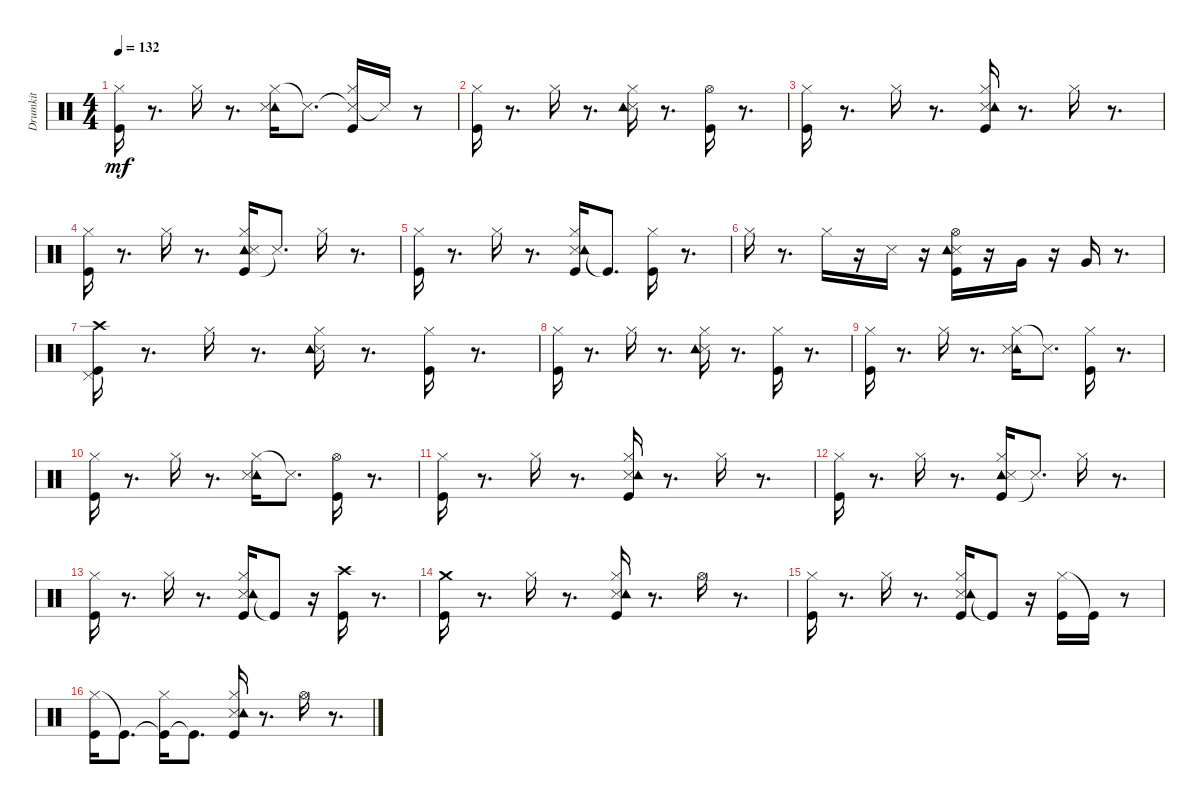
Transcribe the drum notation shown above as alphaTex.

\track ("Drumkit" "Drumkit") {instrument percussion}
\staff {score}
\articulation defaults
\ts (4 4)
\tempo 132
\clef neutral
\ks aminor
("Kick (hit)" "Hi-Hat (closed)").16{dy mf} r.8{d} "Hi-Hat (closed)".16 r.8{d} ("Hi-Hat (closed)" "Tambourine (hit)" "Snare (side stick) 3").16 "Snare (side stick) 3"{t}.8{d} ("Snare (side stick) 3"{t} "Hi-Hat (closed)" "Kick (hit)").16 "Snare (side stick) 3"{t}.16 r.8 |
("Kick (hit)" "Hi-Hat (closed)").16 r.8{d} "Hi-Hat (closed)".16 r.8{d} ("Snare (side stick) 3" "Hi-Hat (closed)" "Tambourine (hit)").16 r.8{d} ("Kick (hit)" "Hi-Hat (open)").16 r.8{d} |
("Kick (hit)" "Hi-Hat (closed)").16 r.8{d} "Hi-Hat (closed)".16 r.8{d} ("Kick (hit)" "Snare (side stick) 3" "Hi-Hat (closed)" "Tambourine (hit)").16 r.8{d} "Hi-Hat (closed)".16 r.8{d} |
("Kick (hit)" "Hi-Hat (closed)").16 r.8{d} "Hi-Hat (closed)".16 r.8{d} ("Kick (hit)" "Hi-Hat (closed)" "Tambourine (hit)" "Snare (side stick) 3").16 "Snare (side stick) 3"{t}.8{d} "Hi-Hat (closed)".16 r.8{d} |
("Kick (hit)" "Hi-Hat (closed)").16 r.8{d} "Hi-Hat (closed)".16 r.8{d} ("Snare (side stick) 3" "Hi-Hat (closed)" "Tambourine (hit)" "Kick (hit)").16 "Kick (hit)"{t}.8{d} ("Kick (hit)" "Hi-Hat (closed)").16 r.8{d} |
"Hi-Hat (closed)".16 r.8{d} "Hi-Hat (closed)".16 r.16 "Snare (side stick) 3".16 r.16 ("Kick (hit)" "Snare (side stick) 3" "Hi-Hat (open)" "Tambourine (hit)").16 r.16 "Very Low Tom (hit)".16 r.16 "Very Low Tom (hit)".16 r.8{d} |
("Kick (hit)" "Pedal Hi-Hat (hit)" "Crash high (hit)").16 r.8{d} "Hi-Hat (closed)".16 r.8{d} ("Snare (side stick) 3" "Hi-Hat (closed)" "Tambourine (hit)").16 r.8{d} ("Kick (hit)" "Hi-Hat (closed)").16 r.8{d} |
("Kick (hit)" "Hi-Hat (closed)").16 r.8{d} "Hi-Hat (closed)".16 r.8{d} ("Snare (side stick) 3" "Hi-Hat (closed)" "Tambourine (hit)").16 r.8{d} ("Kick (hit)" "Hi-Hat (closed)").16 r.8{d} |
("Kick (hit)" "Hi-Hat (closed)").16 r.8{d} "Hi-Hat (closed)".16 r.8{d} ("Hi-Hat (closed)" "Tambourine (hit)" "Snare (side stick) 3").16 "Snare (side stick) 3"{t}.8{d} ("Kick (hit)" "Hi-Hat (closed)").16 r.8{d} |
("Kick (hit)" "Hi-Hat (closed)").16 r.8{d} "Hi-Hat (closed)".16 r.8{d} ("Hi-Hat (closed)" "Tambourine (hit)" "Snare (side stick) 3").16 "Snare (side stick) 3"{t}.8{d} ("Kick (hit)" "Hi-Hat (open)").16 r.8{d} |
("Kick (hit)" "Hi-Hat (closed)").16 r.8{d} "Hi-Hat (closed)".16 r.8{d} ("Kick (hit)" "Snare (side stick) 3" "Hi-Hat (closed)" "Tambourine (hit)").16 r.8{d} "Hi-Hat (closed)".16 r.8{d} |
("Kick (hit)" "Hi-Hat (closed)").16 r.8{d} "Hi-Hat (closed)".16 r.8{d} ("Kick (hit)" "Hi-Hat (closed)" "Tambourine (hit)" "Snare (side stick) 3").16 "Snare (side stick) 3"{t}.8{d} "Hi-Hat (closed)".16 r.8{d} |
("Kick (hit)" "Hi-Hat (closed)").16 r.8{d} "Hi-Hat (closed)".16 r.8{d} ("Snare (side stick) 3" "Hi-Hat (closed)" "Tambourine (hit)" "Kick (hit)").16 "Kick (hit)"{t}.8 r.16 ("Kick (hit)" "Crash high (hit)").16 r.8{d} |
("Kick (hit)" "Crash medium (hit)").16 r.8{d} "Hi-Hat (closed)".16 r.8{d} ("Kick (hit)" "Snare (side stick) 3" "Hi-Hat (closed)" "Tambourine (hit)").16 r.8{d} "Hi-Hat (open)".16 r.8{d} |
("Kick (hit)" "Hi-Hat (closed)").16 r.8{d} "Hi-Hat (closed)".16 r.8{d} ("Snare (side stick) 3" "Hi-Hat (closed)" "Tambourine (hit)" "Kick (hit)").16 "Kick (hit)"{t}.8 r.16 ("Hi-Hat (closed)" "Kick (hit)").16 "Kick (hit)"{t}.16 r.8 |
("Hi-Hat (closed)" "Kick (hit)").16 "Kick (hit)"{t}.8{d} ("Kick (hit)"{t} "Hi-Hat (closed)").16 "Kick (hit)"{t}.8{d} ("Kick (hit)" "Snare (side stick) 3" "Hi-Hat (closed)" "Tambourine (hit)").16 r.8{d} "Hi-Hat (open)".16 r.8{d}
